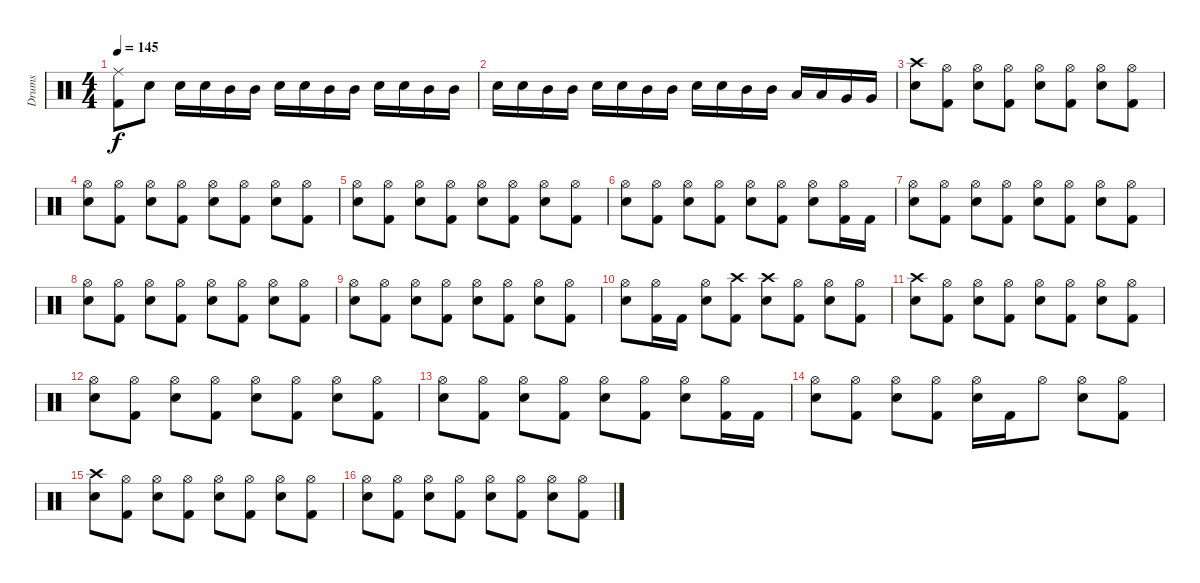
\track ("Drums" "Drums") {instrument percussion}
\staff {score}
\articulation defaults
\ts (4 4)
\tempo 145
\clef neutral
\ks c
("Ride (middle)" "Kick (hit) 2").8{dy f} "Electric Snare (hit)".8 "Electric Snare (hit)".16 "Electric Snare (hit)".16 "Mid Tom (hit)".16 "Mid Tom (hit)".16 "Electric Snare (hit)".16 "Electric Snare (hit)".16 "Mid Tom (hit)".16 "Mid Tom (hit)".16 "Electric Snare (hit)".16 "Electric Snare (hit)".16 "Mid Tom (hit)".16 "Mid Tom (hit)".16 |
"Electric Snare (hit)".16 "Electric Snare (hit)".16 "Mid Tom (hit)".16 "Mid Tom (hit)".16 "Electric Snare (hit)".16 "Electric Snare (hit)".16 "Mid Tom (hit)".16 "Mid Tom (hit)".16 "Electric Snare (hit)".16 "Electric Snare (hit)".16 "Mid Tom (hit)".16 "Mid Tom (hit)".16 "Low Tom (hit)".16 "Low Tom (hit)".16 "Very Low Tom (hit)".16 "Very Low Tom (hit)".16 |
("Crash high (hit)" "Electric Snare (hit)").8 ("Hi-Hat (open)" "Kick (hit) 2").8 ("Hi-Hat (open)" "Electric Snare (hit)").8 ("Hi-Hat (open)" "Kick (hit) 2").8 ("Hi-Hat (open)" "Electric Snare (hit)").8 ("Hi-Hat (open)" "Kick (hit) 2").8 ("Hi-Hat (open)" "Electric Snare (hit)").8 ("Hi-Hat (open)" "Kick (hit) 2").8 |
("Hi-Hat (open)" "Electric Snare (hit)").8 ("Hi-Hat (open)" "Kick (hit) 2").8 ("Hi-Hat (open)" "Electric Snare (hit)").8 ("Hi-Hat (open)" "Kick (hit) 2").8 ("Hi-Hat (open)" "Electric Snare (hit)").8 ("Hi-Hat (open)" "Kick (hit) 2").8 ("Hi-Hat (open)" "Electric Snare (hit)").8 ("Hi-Hat (open)" "Kick (hit) 2").8 |
("Hi-Hat (open)" "Electric Snare (hit)").8 ("Hi-Hat (open)" "Kick (hit) 2").8 ("Hi-Hat (open)" "Electric Snare (hit)").8 ("Hi-Hat (open)" "Kick (hit) 2").8 ("Hi-Hat (open)" "Electric Snare (hit)").8 ("Hi-Hat (open)" "Kick (hit) 2").8 ("Hi-Hat (open)" "Electric Snare (hit)").8 ("Hi-Hat (open)" "Kick (hit) 2").8 |
("Hi-Hat (open)" "Electric Snare (hit)").8 ("Hi-Hat (open)" "Kick (hit) 2").8 ("Hi-Hat (open)" "Electric Snare (hit)").8 ("Hi-Hat (open)" "Kick (hit) 2").8 ("Hi-Hat (open)" "Electric Snare (hit)").8 ("Hi-Hat (open)" "Kick (hit) 2").8 ("Hi-Hat (open)" "Electric Snare (hit)").8 ("Hi-Hat (open)" "Kick (hit) 2").16 "Kick (hit) 2".16 |
("Hi-Hat (open)" "Electric Snare (hit)").8 ("Hi-Hat (open)" "Kick (hit) 2").8 ("Hi-Hat (open)" "Electric Snare (hit)").8 ("Hi-Hat (open)" "Kick (hit) 2").8 ("Hi-Hat (open)" "Electric Snare (hit)").8 ("Hi-Hat (open)" "Kick (hit) 2").8 ("Hi-Hat (open)" "Electric Snare (hit)").8 ("Hi-Hat (open)" "Kick (hit) 2").8 |
("Hi-Hat (open)" "Electric Snare (hit)").8 ("Hi-Hat (open)" "Kick (hit) 2").8 ("Hi-Hat (open)" "Electric Snare (hit)").8 ("Hi-Hat (open)" "Kick (hit) 2").8 ("Hi-Hat (open)" "Electric Snare (hit)").8 ("Hi-Hat (open)" "Kick (hit) 2").8 ("Hi-Hat (open)" "Electric Snare (hit)").8 ("Hi-Hat (open)" "Kick (hit) 2").8 |
("Hi-Hat (open)" "Electric Snare (hit)").8 ("Hi-Hat (open)" "Kick (hit) 2").8 ("Hi-Hat (open)" "Electric Snare (hit)").8 ("Hi-Hat (open)" "Kick (hit) 2").8 ("Hi-Hat (open)" "Electric Snare (hit)").8 ("Hi-Hat (open)" "Kick (hit) 2").8 ("Hi-Hat (open)" "Electric Snare (hit)").8 ("Hi-Hat (open)" "Kick (hit) 2").8 |
("Hi-Hat (open)" "Electric Snare (hit)").8 ("Hi-Hat (open)" "Kick (hit) 2").16 "Kick (hit) 2".16 ("Hi-Hat (open)" "Electric Snare (hit)").8 ("Crash high (hit)" "Kick (hit) 2").8 ("Crash high (hit)" "Electric Snare (hit)").8 ("Hi-Hat (open)" "Kick (hit) 2").8 ("Hi-Hat (open)" "Electric Snare (hit)").8 ("Hi-Hat (open)" "Kick (hit) 2").8 |
("Crash high (hit)" "Electric Snare (hit)").8 ("Hi-Hat (open)" "Kick (hit) 2").8 ("Hi-Hat (open)" "Electric Snare (hit)").8 ("Hi-Hat (open)" "Kick (hit) 2").8 ("Hi-Hat (open)" "Electric Snare (hit)").8 ("Hi-Hat (open)" "Kick (hit) 2").8 ("Hi-Hat (open)" "Electric Snare (hit)").8 ("Hi-Hat (open)" "Kick (hit) 2").8 |
("Hi-Hat (open)" "Electric Snare (hit)").8 ("Hi-Hat (open)" "Kick (hit) 2").8 ("Hi-Hat (open)" "Electric Snare (hit)").8 ("Hi-Hat (open)" "Kick (hit) 2").8 ("Hi-Hat (open)" "Electric Snare (hit)").8 ("Hi-Hat (open)" "Kick (hit) 2").8 ("Hi-Hat (open)" "Electric Snare (hit)").8 ("Hi-Hat (open)" "Kick (hit) 2").8 |
("Hi-Hat (open)" "Electric Snare (hit)").8 ("Hi-Hat (open)" "Kick (hit) 2").8 ("Hi-Hat (open)" "Electric Snare (hit)").8 ("Hi-Hat (open)" "Kick (hit) 2").8 ("Hi-Hat (open)" "Electric Snare (hit)").8 ("Hi-Hat (open)" "Kick (hit) 2").8 ("Hi-Hat (open)" "Electric Snare (hit)").8 ("Hi-Hat (open)" "Kick (hit) 2").16 "Kick (hit) 2".16 |
("Hi-Hat (open)" "Electric Snare (hit)").8 ("Hi-Hat (open)" "Kick (hit) 2").8 ("Hi-Hat (open)" "Electric Snare (hit)").8 ("Hi-Hat (open)" "Kick (hit) 2").8 ("Hi-Hat (open)" "Electric Snare (hit)").16 "Kick (hit) 2".16 "Hi-Hat (open)".8 ("Hi-Hat (open)" "Electric Snare (hit)").8 ("Hi-Hat (open)" "Kick (hit) 2").8 |
("Crash high (hit)" "Electric Snare (hit)").8 ("Hi-Hat (open)" "Kick (hit) 2").8 ("Hi-Hat (open)" "Electric Snare (hit)").8 ("Hi-Hat (open)" "Kick (hit) 2").8 ("Hi-Hat (open)" "Electric Snare (hit)").8 ("Hi-Hat (open)" "Kick (hit) 2").8 ("Hi-Hat (open)" "Electric Snare (hit)").8 ("Hi-Hat (open)" "Kick (hit) 2").8 |
("Hi-Hat (open)" "Electric Snare (hit)").8 ("Hi-Hat (open)" "Kick (hit) 2").8 ("Hi-Hat (open)" "Electric Snare (hit)").8 ("Hi-Hat (open)" "Kick (hit) 2").8 ("Hi-Hat (open)" "Electric Snare (hit)").8 ("Hi-Hat (open)" "Kick (hit) 2").8 ("Hi-Hat (open)" "Electric Snare (hit)").8 ("Hi-Hat (open)" "Kick (hit) 2").8
